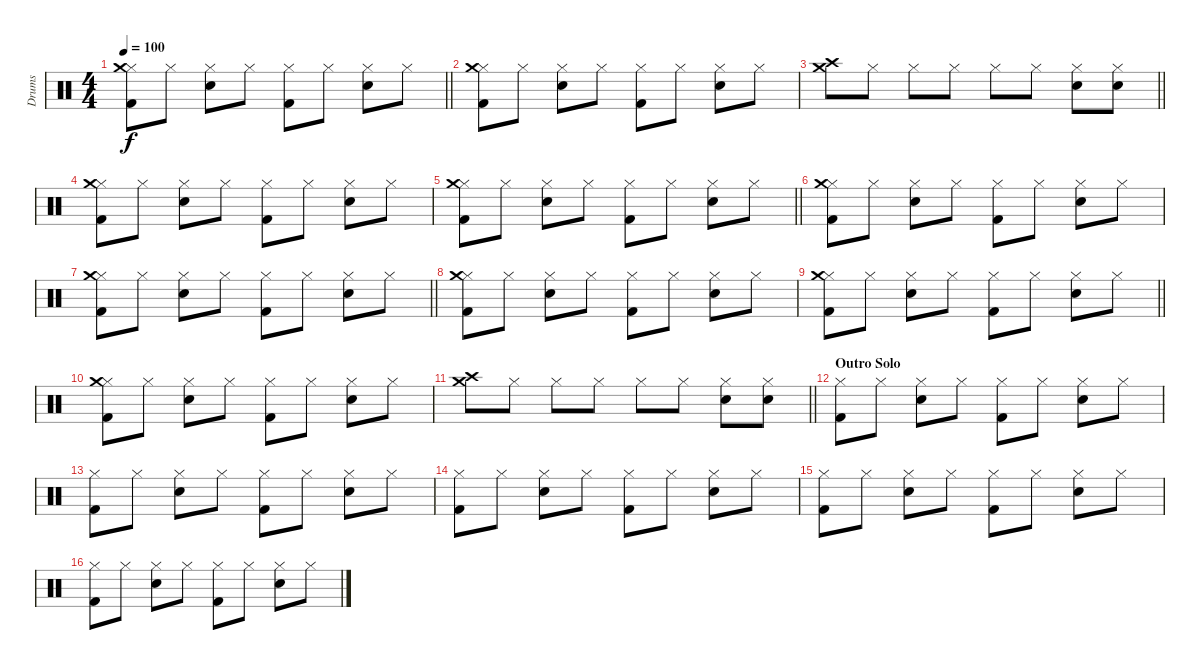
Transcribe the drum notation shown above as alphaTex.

\track ("Drums" "Drums") {instrument percussion}
\staff {score}
\articulation defaults
\ts (4 4)
\tempo 100
\clef neutral
\barLineRight lightlight
\ks c
("Hi-Hat (closed)" "Kick (hit) 2" "Crash medium (hit)").8{dy f} "Hi-Hat (closed)".8 ("Hi-Hat (closed)" "Snare (hit) 2").8 "Hi-Hat (closed)".8 ("Hi-Hat (closed)" "Kick (hit) 2").8 "Hi-Hat (closed)".8 ("Hi-Hat (closed)" "Snare (hit) 2").8 "Hi-Hat (closed)".8 |
("Hi-Hat (closed)" "Kick (hit) 2" "Crash medium (hit)").8 "Hi-Hat (closed)".8 ("Hi-Hat (closed)" "Snare (hit) 2").8 "Hi-Hat (closed)".8 ("Hi-Hat (closed)" "Kick (hit) 2").8 "Hi-Hat (closed)".8 ("Hi-Hat (closed)" "Snare (hit) 2").8 "Hi-Hat (closed)".8 |
\barLineRight lightlight
("Crash high (hit)" "Crash medium (hit)").8 "Hi-Hat (closed)".8 "Hi-Hat (closed)".8 "Hi-Hat (closed)".8 "Hi-Hat (closed)".8 "Hi-Hat (closed)".8 ("Snare (hit) 2" "Hi-Hat (closed)").8 ("Snare (hit) 2" "Hi-Hat (closed)").8 |
("Hi-Hat (closed)" "Kick (hit) 2" "Crash medium (hit)").8 "Hi-Hat (closed)".8 ("Hi-Hat (closed)" "Snare (hit) 2").8 "Hi-Hat (closed)".8 ("Hi-Hat (closed)" "Kick (hit) 2").8 "Hi-Hat (closed)".8 ("Hi-Hat (closed)" "Snare (hit) 2").8 "Hi-Hat (closed)".8 |
\barLineRight lightlight
("Hi-Hat (closed)" "Kick (hit) 2" "Crash medium (hit)").8 "Hi-Hat (closed)".8 ("Hi-Hat (closed)" "Snare (hit) 2").8 "Hi-Hat (closed)".8 ("Hi-Hat (closed)" "Kick (hit) 2").8 "Hi-Hat (closed)".8 ("Hi-Hat (closed)" "Snare (hit) 2").8 "Hi-Hat (closed)".8 |
("Hi-Hat (closed)" "Kick (hit) 2" "Crash medium (hit)").8 "Hi-Hat (closed)".8 ("Hi-Hat (closed)" "Snare (hit) 2").8 "Hi-Hat (closed)".8 ("Hi-Hat (closed)" "Kick (hit) 2").8 "Hi-Hat (closed)".8 ("Hi-Hat (closed)" "Snare (hit) 2").8 "Hi-Hat (closed)".8 |
\barLineRight lightlight
("Hi-Hat (closed)" "Kick (hit) 2" "Crash medium (hit)").8 "Hi-Hat (closed)".8 ("Hi-Hat (closed)" "Snare (hit) 2").8 "Hi-Hat (closed)".8 ("Hi-Hat (closed)" "Kick (hit) 2").8 "Hi-Hat (closed)".8 ("Hi-Hat (closed)" "Snare (hit) 2").8 "Hi-Hat (closed)".8 |
("Hi-Hat (closed)" "Kick (hit) 2" "Crash medium (hit)").8 "Hi-Hat (closed)".8 ("Hi-Hat (closed)" "Snare (hit) 2").8 "Hi-Hat (closed)".8 ("Hi-Hat (closed)" "Kick (hit) 2").8 "Hi-Hat (closed)".8 ("Hi-Hat (closed)" "Snare (hit) 2").8 "Hi-Hat (closed)".8 |
\barLineRight lightlight
("Hi-Hat (closed)" "Kick (hit) 2" "Crash medium (hit)").8 "Hi-Hat (closed)".8 ("Hi-Hat (closed)" "Snare (hit) 2").8 "Hi-Hat (closed)".8 ("Hi-Hat (closed)" "Kick (hit) 2").8 "Hi-Hat (closed)".8 ("Hi-Hat (closed)" "Snare (hit) 2").8 "Hi-Hat (closed)".8 |
("Hi-Hat (closed)" "Kick (hit) 2" "Crash medium (hit)").8 "Hi-Hat (closed)".8 ("Hi-Hat (closed)" "Snare (hit) 2").8 "Hi-Hat (closed)".8 ("Hi-Hat (closed)" "Kick (hit) 2").8 "Hi-Hat (closed)".8 ("Hi-Hat (closed)" "Snare (hit) 2").8 "Hi-Hat (closed)".8 |
\barLineRight lightlight
("Crash high (hit)" "Crash medium (hit)").8 "Hi-Hat (closed)".8 "Hi-Hat (closed)".8 "Hi-Hat (closed)".8 "Hi-Hat (closed)".8 "Hi-Hat (closed)".8 ("Snare (hit) 2" "Hi-Hat (closed)").8 ("Snare (hit) 2" "Hi-Hat (closed)").8 |
\section ("" "Outro Solo")
("Hi-Hat (closed)" "Kick (hit) 2").8 "Hi-Hat (closed)".8 ("Hi-Hat (closed)" "Snare (hit) 2").8 "Hi-Hat (closed)".8 ("Hi-Hat (closed)" "Kick (hit) 2").8 "Hi-Hat (closed)".8 ("Hi-Hat (closed)" "Snare (hit) 2").8 "Hi-Hat (closed)".8 |
("Hi-Hat (closed)" "Kick (hit) 2").8 "Hi-Hat (closed)".8 ("Hi-Hat (closed)" "Snare (hit) 2").8 "Hi-Hat (closed)".8 ("Hi-Hat (closed)" "Kick (hit) 2").8 "Hi-Hat (closed)".8 ("Hi-Hat (closed)" "Snare (hit) 2").8 "Hi-Hat (closed)".8 |
("Hi-Hat (closed)" "Kick (hit) 2").8 "Hi-Hat (closed)".8 ("Hi-Hat (closed)" "Snare (hit) 2").8 "Hi-Hat (closed)".8 ("Hi-Hat (closed)" "Kick (hit) 2").8 "Hi-Hat (closed)".8 ("Hi-Hat (closed)" "Snare (hit) 2").8 "Hi-Hat (closed)".8 |
("Hi-Hat (closed)" "Kick (hit) 2").8 "Hi-Hat (closed)".8 ("Hi-Hat (closed)" "Snare (hit) 2").8 "Hi-Hat (closed)".8 ("Hi-Hat (closed)" "Kick (hit) 2").8 "Hi-Hat (closed)".8 ("Hi-Hat (closed)" "Snare (hit) 2").8 "Hi-Hat (closed)".8 |
("Hi-Hat (closed)" "Kick (hit) 2").8 "Hi-Hat (closed)".8 ("Hi-Hat (closed)" "Snare (hit) 2").8 "Hi-Hat (closed)".8 ("Hi-Hat (closed)" "Kick (hit) 2").8 "Hi-Hat (closed)".8 ("Hi-Hat (closed)" "Snare (hit) 2").8 "Hi-Hat (closed)".8
